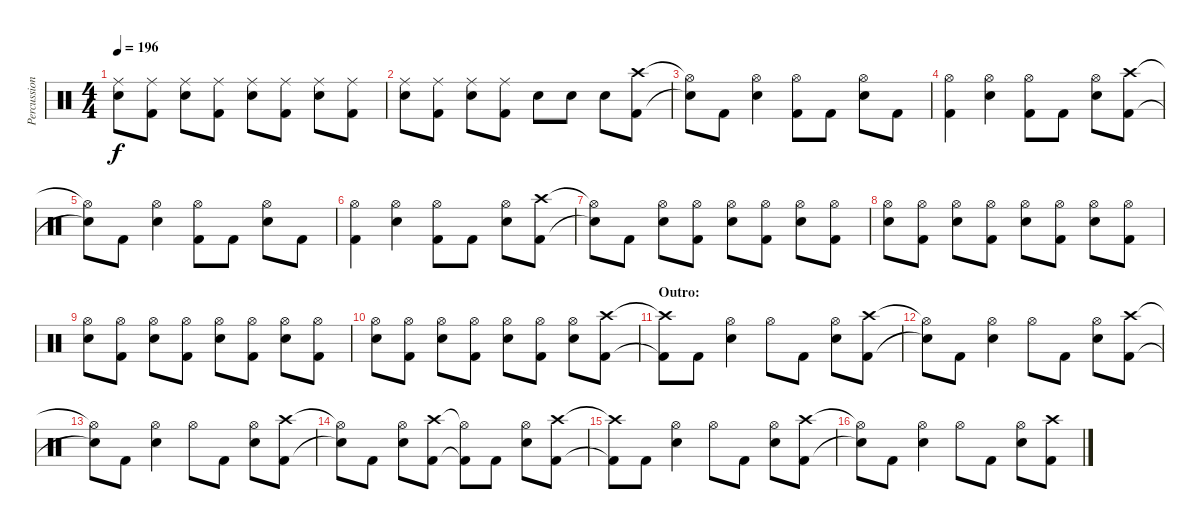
\track ("Percussion" "Percussion") {instrument percussion}
\staff {score}
\articulation defaults
\ts (4 4)
\tempo 196
\clef neutral
\ks c
("Ride (middle)" "Snare (hit) 2").8{dy f} ("Ride (middle)" "Kick (hit) 2").8 ("Ride (middle)" "Snare (hit) 2").8 ("Ride (middle)" "Kick (hit) 2").8 ("Ride (middle)" "Snare (hit) 2").8 ("Ride (middle)" "Kick (hit) 2").8 ("Ride (middle)" "Snare (hit) 2").8 ("Ride (middle)" "Kick (hit) 2").8 |
("Ride (middle)" "Snare (hit) 2").8 ("Ride (middle)" "Kick (hit) 2").8 ("Ride (middle)" "Snare (hit) 2").8 ("Ride (middle)" "Kick (hit) 2").8 "Snare (hit) 2".8 "Snare (hit) 2".8 "Snare (hit) 2".8 ("Crash high (hit)" "Kick (hit) 2").8 |
("Hi-Hat (open)"{t} "Snare (hit)"{t}).8 "Kick (hit) 2".8 ("Hi-Hat (open)" "Snare (hit) 2").4 ("Hi-Hat (open)" "Kick (hit) 2").8 "Kick (hit) 2".8 ("Hi-Hat (open)" "Snare (hit) 2").8 "Kick (hit) 2".8 |
("Hi-Hat (open)" "Kick (hit) 2").4 ("Hi-Hat (open)" "Snare (hit) 2").4 ("Hi-Hat (open)" "Kick (hit) 2").8 "Kick (hit) 2".8 ("Hi-Hat (open)" "Snare (hit) 2").8 ("Crash high (hit)" "Kick (hit) 2").8 |
("Hi-Hat (open)"{t} "Snare (hit)"{t}).8 "Kick (hit) 2".8 ("Hi-Hat (open)" "Snare (hit) 2").4 ("Hi-Hat (open)" "Kick (hit) 2").8 "Kick (hit) 2".8 ("Hi-Hat (open)" "Snare (hit) 2").8 "Kick (hit) 2".8 |
("Hi-Hat (open)" "Kick (hit) 2").4 ("Hi-Hat (open)" "Snare (hit) 2").4 ("Hi-Hat (open)" "Kick (hit) 2").8 "Kick (hit) 2".8 ("Hi-Hat (open)" "Snare (hit) 2").8 ("Crash high (hit)" "Kick (hit) 2").8 |
("Hi-Hat (open)"{t} "Snare (hit)"{t}).8 "Kick (hit) 2".8 ("Hi-Hat (open)" "Snare (hit) 2").8 ("Hi-Hat (open)" "Kick (hit) 2").8 ("Hi-Hat (open)" "Snare (hit) 2").8 ("Hi-Hat (open)" "Kick (hit) 2").8 ("Hi-Hat (open)" "Snare (hit) 2").8 ("Hi-Hat (open)" "Kick (hit) 2").8 |
("Hi-Hat (open)" "Snare (hit) 2").8 ("Hi-Hat (open)" "Kick (hit) 2").8 ("Hi-Hat (open)" "Snare (hit) 2").8 ("Hi-Hat (open)" "Kick (hit) 2").8 ("Hi-Hat (open)" "Snare (hit) 2").8 ("Hi-Hat (open)" "Kick (hit) 2").8 ("Hi-Hat (open)" "Snare (hit) 2").8 ("Hi-Hat (open)" "Kick (hit) 2").8 |
("Hi-Hat (open)" "Snare (hit) 2").8 ("Hi-Hat (open)" "Kick (hit) 2").8 ("Hi-Hat (open)" "Snare (hit) 2").8 ("Hi-Hat (open)" "Kick (hit) 2").8 ("Hi-Hat (open)" "Snare (hit) 2").8 ("Hi-Hat (open)" "Kick (hit) 2").8 ("Hi-Hat (open)" "Snare (hit) 2").8 ("Hi-Hat (open)" "Kick (hit) 2").8 |
("Hi-Hat (open)" "Snare (hit) 2").8 ("Hi-Hat (open)" "Kick (hit) 2").8 ("Hi-Hat (open)" "Snare (hit) 2").8 ("Hi-Hat (open)" "Kick (hit) 2").8 ("Hi-Hat (open)" "Snare (hit) 2").8 ("Hi-Hat (open)" "Kick (hit) 2").8 ("Hi-Hat (open)" "Snare (hit) 2").8 ("Crash high (hit)" "Kick (hit) 2").8 |
\section ("" "Outro:")
("Crash high (hit)"{t} "Kick (hit) 2"{t}).8 "Kick (hit) 2".8 ("Hi-Hat (open)" "Snare (hit) 2").4 "Hi-Hat (open)".8 "Kick (hit) 2".8 ("Hi-Hat (open)" "Snare (hit) 2").8 ("Crash high (hit)" "Kick (hit) 2").8 |
("Hi-Hat (open)"{t} "Snare (hit)"{t}).8 "Kick (hit) 2".8 ("Hi-Hat (open)" "Snare (hit) 2").4 "Hi-Hat (open)".8 "Kick (hit) 2".8 ("Hi-Hat (open)" "Snare (hit) 2").8 ("Crash high (hit)" "Kick (hit) 2").8 |
("Hi-Hat (open)"{t} "Snare (hit)"{t}).8 "Kick (hit) 2".8 ("Hi-Hat (open)" "Snare (hit) 2").4 "Hi-Hat (open)".8 "Kick (hit) 2".8 ("Hi-Hat (open)" "Snare (hit) 2").8 ("Crash high (hit)" "Kick (hit) 2").8 |
("Hi-Hat (open)"{t} "Snare (hit)"{t}).8 "Kick (hit) 2".8 ("Hi-Hat (open)" "Snare (hit) 2").8 ("Crash high (hit)" "Kick (hit) 2").8 ("Hi-Hat (open)"{t} "Kick (hit) 2"{t}).8 "Kick (hit) 2".8 ("Hi-Hat (open)" "Snare (hit) 2").8 ("Crash high (hit)" "Kick (hit) 2").8 |
("Crash high (hit)"{t} "Kick (hit) 2"{t}).8 "Kick (hit) 2".8 ("Hi-Hat (open)" "Snare (hit) 2").4 "Hi-Hat (open)".8 "Kick (hit) 2".8 ("Hi-Hat (open)" "Snare (hit) 2").8 ("Crash high (hit)" "Kick (hit) 2").8 |
("Hi-Hat (open)"{t} "Snare (hit)"{t}).8 "Kick (hit) 2".8 ("Hi-Hat (open)" "Snare (hit) 2").4 "Hi-Hat (open)".8 "Kick (hit) 2".8 ("Hi-Hat (open)" "Snare (hit) 2").8 ("Crash high (hit)" "Kick (hit) 2").8
